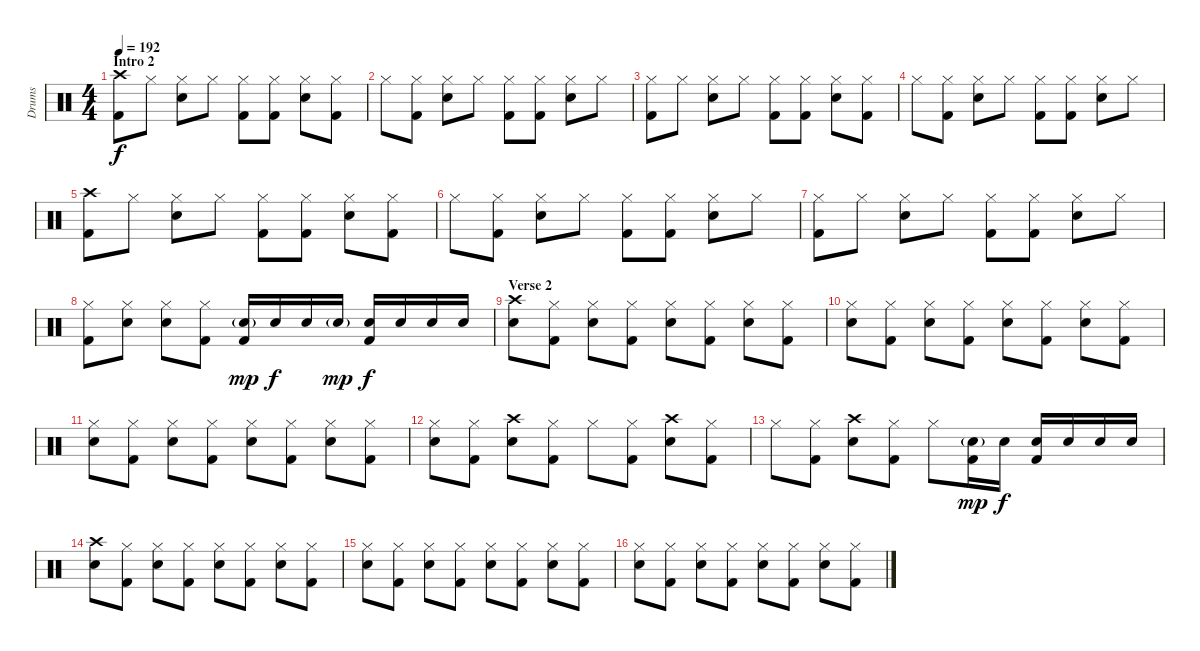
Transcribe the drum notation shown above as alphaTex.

\track ("Drums" "Drums") {instrument percussion}
\staff {score}
\articulation defaults
\ts (4 4)
\section ("" "Intro 2")
\tempo 192
\clef neutral
\ks c
("Crash high (hit)" "Kick (hit) 2").8{dy f} "Hi-Hat (closed)".8 ("Hi-Hat (closed)" "Electric Snare (hit)").8 "Hi-Hat (closed)".8 ("Hi-Hat (closed)" "Kick (hit) 2").8 ("Hi-Hat (closed)" "Kick (hit) 2").8 ("Hi-Hat (closed)" "Electric Snare (hit)").8 ("Hi-Hat (closed)" "Kick (hit) 2").8 |
"Hi-Hat (closed)".8 ("Hi-Hat (closed)" "Kick (hit) 2").8 ("Hi-Hat (closed)" "Electric Snare (hit)").8 "Hi-Hat (closed)".8 ("Hi-Hat (closed)" "Kick (hit) 2").8 ("Hi-Hat (closed)" "Kick (hit) 2").8 ("Hi-Hat (closed)" "Electric Snare (hit)").8 "Hi-Hat (closed)".8 |
("Hi-Hat (closed)" "Kick (hit) 2").8 "Hi-Hat (closed)".8 ("Hi-Hat (closed)" "Electric Snare (hit)").8 "Hi-Hat (closed)".8 ("Hi-Hat (closed)" "Kick (hit) 2").8 ("Hi-Hat (closed)" "Kick (hit) 2").8 ("Hi-Hat (closed)" "Electric Snare (hit)").8 ("Hi-Hat (closed)" "Kick (hit) 2").8 |
"Hi-Hat (closed)".8 ("Hi-Hat (closed)" "Kick (hit) 2").8 ("Hi-Hat (closed)" "Electric Snare (hit)").8 "Hi-Hat (closed)".8 ("Hi-Hat (closed)" "Kick (hit) 2").8 ("Hi-Hat (closed)" "Kick (hit) 2").8 ("Hi-Hat (closed)" "Electric Snare (hit)").8 "Hi-Hat (closed)".8 |
("Crash high (hit)" "Kick (hit) 2").8 "Hi-Hat (closed)".8 ("Hi-Hat (closed)" "Electric Snare (hit)").8 "Hi-Hat (closed)".8 ("Hi-Hat (closed)" "Kick (hit) 2").8 ("Hi-Hat (closed)" "Kick (hit) 2").8 ("Hi-Hat (closed)" "Electric Snare (hit)").8 ("Hi-Hat (closed)" "Kick (hit) 2").8 |
"Hi-Hat (closed)".8 ("Hi-Hat (closed)" "Kick (hit) 2").8 ("Hi-Hat (closed)" "Electric Snare (hit)").8 "Hi-Hat (closed)".8 ("Hi-Hat (closed)" "Kick (hit) 2").8 ("Hi-Hat (closed)" "Kick (hit) 2").8 ("Hi-Hat (closed)" "Electric Snare (hit)").8 "Hi-Hat (closed)".8 |
("Hi-Hat (closed)" "Kick (hit) 2").8 "Hi-Hat (closed)".8 ("Hi-Hat (closed)" "Electric Snare (hit)").8 "Hi-Hat (closed)".8 ("Hi-Hat (closed)" "Kick (hit) 2").8 ("Hi-Hat (closed)" "Kick (hit) 2").8 ("Hi-Hat (closed)" "Electric Snare (hit)").8 "Hi-Hat (closed)".8 |
("Hi-Hat (closed)" "Kick (hit) 2").8 ("Hi-Hat (closed)" "Electric Snare (hit)").8 ("Hi-Hat (closed)" "Electric Snare (hit)").8 ("Hi-Hat (closed)" "Kick (hit) 2").8 ("Electric Snare (hit)"{g} "Kick (hit) 2").16{dy mp} "Electric Snare (hit)".16{dy f} "Electric Snare (hit)".16 "Electric Snare (hit)"{g}.16{dy mp} ("Electric Snare (hit)" "Kick (hit) 2").16{dy f} "Electric Snare (hit)".16 "Electric Snare (hit)".16 "Electric Snare (hit)".16 |
\section ("" "Verse 2")
("Crash high (hit)" "Electric Snare (hit)").8 ("Hi-Hat (closed)" "Kick (hit) 2").8 ("Hi-Hat (closed)" "Electric Snare (hit)").8 ("Hi-Hat (closed)" "Kick (hit) 2").8 ("Hi-Hat (closed)" "Electric Snare (hit)").8 ("Hi-Hat (closed)" "Kick (hit) 2").8 ("Hi-Hat (closed)" "Electric Snare (hit)").8 ("Hi-Hat (closed)" "Kick (hit) 2").8 |
("Hi-Hat (closed)" "Electric Snare (hit)").8 ("Hi-Hat (closed)" "Kick (hit) 2").8 ("Hi-Hat (closed)" "Electric Snare (hit)").8 ("Hi-Hat (closed)" "Kick (hit) 2").8 ("Hi-Hat (closed)" "Electric Snare (hit)").8 ("Hi-Hat (closed)" "Kick (hit) 2").8 ("Hi-Hat (closed)" "Electric Snare (hit)").8 ("Hi-Hat (closed)" "Kick (hit) 2").8 |
("Hi-Hat (closed)" "Electric Snare (hit)").8 ("Hi-Hat (closed)" "Kick (hit) 2").8 ("Hi-Hat (closed)" "Electric Snare (hit)").8 ("Hi-Hat (closed)" "Kick (hit) 2").8 ("Hi-Hat (closed)" "Electric Snare (hit)").8 ("Hi-Hat (closed)" "Kick (hit) 2").8 ("Hi-Hat (closed)" "Electric Snare (hit)").8 ("Hi-Hat (closed)" "Kick (hit) 2").8 |
("Hi-Hat (closed)" "Electric Snare (hit)").8 ("Hi-Hat (closed)" "Kick (hit) 2").8 ("Crash high (hit)" "Electric Snare (hit)").8 ("Hi-Hat (closed)" "Kick (hit) 2").8 "Hi-Hat (closed)".8 ("Hi-Hat (closed)" "Kick (hit) 2").8 ("Crash high (hit)" "Electric Snare (hit)").8 ("Hi-Hat (closed)" "Kick (hit) 2").8 |
"Hi-Hat (closed)".8 ("Hi-Hat (closed)" "Kick (hit) 2").8 ("Crash high (hit)" "Electric Snare (hit)").8 ("Hi-Hat (closed)" "Kick (hit) 2").8 "Hi-Hat (closed)".8 ("Electric Snare (hit)"{g} "Kick (hit) 2").16{dy mp} "Electric Snare (hit)".16{dy f} ("Electric Snare (hit)" "Kick (hit) 2").16 "Electric Snare (hit)".16 "Electric Snare (hit)".16 "Electric Snare (hit)".16 |
("Crash high (hit)" "Electric Snare (hit)").8 ("Hi-Hat (closed)" "Kick (hit) 2").8 ("Hi-Hat (closed)" "Electric Snare (hit)").8 ("Hi-Hat (closed)" "Kick (hit) 2").8 ("Hi-Hat (closed)" "Electric Snare (hit)").8 ("Hi-Hat (closed)" "Kick (hit) 2").8 ("Hi-Hat (closed)" "Electric Snare (hit)").8 ("Hi-Hat (closed)" "Kick (hit) 2").8 |
("Hi-Hat (closed)" "Electric Snare (hit)").8 ("Hi-Hat (closed)" "Kick (hit) 2").8 ("Hi-Hat (closed)" "Electric Snare (hit)").8 ("Hi-Hat (closed)" "Kick (hit) 2").8 ("Hi-Hat (closed)" "Electric Snare (hit)").8 ("Hi-Hat (closed)" "Kick (hit) 2").8 ("Hi-Hat (closed)" "Electric Snare (hit)").8 ("Hi-Hat (closed)" "Kick (hit) 2").8 |
("Hi-Hat (closed)" "Electric Snare (hit)").8 ("Hi-Hat (closed)" "Kick (hit) 2").8 ("Hi-Hat (closed)" "Electric Snare (hit)").8 ("Hi-Hat (closed)" "Kick (hit) 2").8 ("Hi-Hat (closed)" "Electric Snare (hit)").8 ("Hi-Hat (closed)" "Kick (hit) 2").8 ("Hi-Hat (closed)" "Electric Snare (hit)").8 ("Hi-Hat (closed)" "Kick (hit) 2").8
